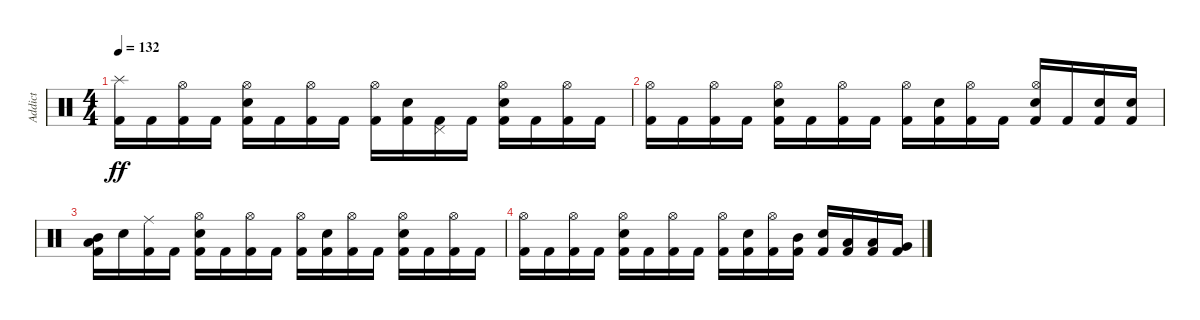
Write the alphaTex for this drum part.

\track ("Addict" "Addict") {instrument percussion}
\staff {score}
\articulation defaults
\ts (4 4)
\tempo 132
\clef neutral
\ks c
("Kick (hit) 2" "Splash (hit)").16{dy ff} "Kick (hit) 2".16 ("Kick (hit) 2" "Hi-Hat (open)").16 "Kick (hit) 2".16 ("Kick (hit) 2" "Snare (hit) 2" "Hi-Hat (open)").16 "Kick (hit) 2".16 ("Kick (hit) 2" "Hi-Hat (open)").16 "Kick (hit) 2".16 ("Kick (hit) 2" "Hi-Hat (open)").16 ("Kick (hit) 2" "Snare (hit) 2").16 ("Kick (hit) 2" "Pedal Hi-Hat (hit)").16 "Kick (hit) 2".16 ("Kick (hit) 2" "Snare (hit) 2" "Hi-Hat (open)").16 "Kick (hit) 2".16 ("Kick (hit) 2" "Hi-Hat (open)").16 "Kick (hit) 2".16 |
("Kick (hit) 2" "Hi-Hat (open)").16 "Kick (hit) 2".16 ("Kick (hit) 2" "Hi-Hat (open)").16 "Kick (hit) 2".16 ("Kick (hit) 2" "Snare (hit) 2" "Hi-Hat (open)").16 "Kick (hit) 2".16 ("Kick (hit) 2" "Hi-Hat (open)").16 "Kick (hit) 2".16 ("Kick (hit) 2" "Hi-Hat (open)").16 ("Kick (hit) 2" "Snare (hit) 2").16 ("Kick (hit) 2" "Hi-Hat (open)").16 "Kick (hit) 2".16 ("Kick (hit) 2" "Snare (hit) 2" "Hi-Hat (open)").16 "Kick (hit) 2".16 ("Kick (hit) 2" "Snare (hit) 2").16 ("Kick (hit) 2" "Snare (hit) 2").16 |
("Kick (hit) 2" "Low Tom (hit)" "Mid Tom (hit)").16 "Snare (hit) 2".16 ("Kick (hit) 2" "Ride (middle)").16 "Kick (hit) 2".16 ("Kick (hit) 2" "Snare (hit) 2" "Hi-Hat (open)").16 "Kick (hit) 2".16 ("Kick (hit) 2" "Hi-Hat (open)").16 "Kick (hit) 2".16 ("Kick (hit) 2" "Hi-Hat (open)").16 ("Kick (hit) 2" "Snare (hit) 2").16 ("Kick (hit) 2" "Hi-Hat (open)").16 "Kick (hit) 2".16 ("Kick (hit) 2" "Snare (hit) 2" "Hi-Hat (open)").16 "Kick (hit) 2".16 ("Kick (hit) 2" "Hi-Hat (open)").16 "Kick (hit) 2".16 |
("Kick (hit) 2" "Hi-Hat (open)").16 "Kick (hit) 2".16 ("Kick (hit) 2" "Hi-Hat (open)").16 "Kick (hit) 2".16 ("Kick (hit) 2" "Snare (hit) 2" "Hi-Hat (open)").16 "Kick (hit) 2".16 ("Kick (hit) 2" "Hi-Hat (open)").16 "Kick (hit) 2".16 ("Kick (hit) 2" "Hi-Hat (open)").16 ("Kick (hit) 2" "Snare (hit) 2").16 ("Kick (hit) 2" "Hi-Hat (open)").16 ("Kick (hit) 2" "Mid Tom (hit)").16 ("Kick (hit) 2" "Snare (hit) 2").16 ("Kick (hit) 2" "Low Tom (hit)").16 ("Kick (hit) 2" "Low Tom (hit)").16 ("Kick (hit) 2" "Very Low Tom (hit)").16
